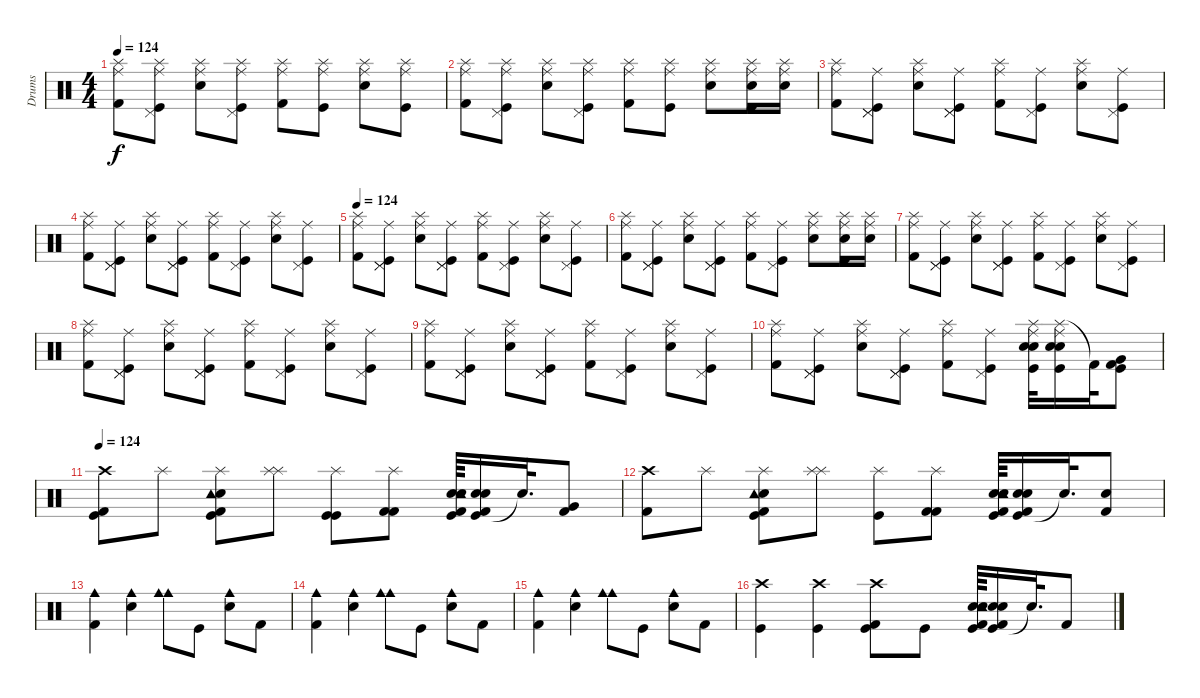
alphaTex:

\track ("Drums " "Drums ") {instrument percussion}
\staff {score}
\articulation defaults
\ts (4 4)
\tempo 124
\clef neutral
\ks c
("Splash (hit)" "Ride (middle)" "Kick (hit) 2").8{dy f} ("Splash (hit)" "Ride (middle)" "Kick (hit)" "Pedal Hi-Hat (hit)").8 ("Splash (hit)" "Ride (middle)" "Electric Snare (hit)").8 ("Splash (hit)" "Ride (middle)" "Kick (hit)" "Pedal Hi-Hat (hit)").8 ("Splash (hit)" "Ride (middle)" "Kick (hit) 2").8 ("Splash (hit)" "Ride (middle)" "Kick (hit)").8 ("Splash (hit)" "Ride (middle)" "Electric Snare (hit)").8 ("Splash (hit)" "Ride (middle)" "Kick (hit)").8 |
("Splash (hit)" "Ride (middle)" "Kick (hit) 2").8 ("Splash (hit)" "Ride (middle)" "Kick (hit)" "Pedal Hi-Hat (hit)").8 ("Splash (hit)" "Ride (middle)" "Electric Snare (hit)").8 ("Splash (hit)" "Ride (middle)" "Kick (hit)" "Pedal Hi-Hat (hit)").8 ("Splash (hit)" "Ride (middle)" "Kick (hit) 2").8 ("Splash (hit)" "Ride (middle)" "Kick (hit)").8 ("Splash (hit)" "Ride (middle)" "Electric Snare (hit)").8 ("Splash (hit)" "Ride (middle)" "Kick (hit)" "Electric Snare (hit)").16 ("Splash (hit)" "Ride (middle)" "Electric Snare (hit)").16 |
("Splash (hit)" "Ride (middle)" "Kick (hit) 2").8 ("Pedal Hi-Hat (hit)" "Ride (middle)" "Kick (hit)" "Pedal Hi-Hat (hit)").8 ("Splash (hit)" "Ride (middle)" "Electric Snare (hit)").8 ("Pedal Hi-Hat (hit)" "Ride (middle)" "Kick (hit)" "Pedal Hi-Hat (hit)").8 ("Splash (hit)" "Ride (middle)" "Kick (hit) 2").8 ("Pedal Hi-Hat (hit)" "Ride (middle)" "Kick (hit)").8 ("Splash (hit)" "Ride (middle)" "Electric Snare (hit)").8 ("Pedal Hi-Hat (hit)" "Ride (middle)" "Kick (hit)").8 |
("Splash (hit)" "Ride (middle)" "Kick (hit) 2").8 ("Pedal Hi-Hat (hit)" "Ride (middle)" "Kick (hit)" "Pedal Hi-Hat (hit)").8 ("Splash (hit)" "Ride (middle)" "Electric Snare (hit)").8 ("Pedal Hi-Hat (hit)" "Ride (middle)" "Kick (hit)" "Pedal Hi-Hat (hit)").8 ("Splash (hit)" "Ride (middle)" "Kick (hit) 2").8 ("Pedal Hi-Hat (hit)" "Ride (middle)" "Kick (hit)").8 ("Splash (hit)" "Ride (middle)" "Electric Snare (hit)").8 ("Pedal Hi-Hat (hit)" "Ride (middle)" "Kick (hit)").8 |
\tempo 124
("Splash (hit)" "Ride (middle)" "Kick (hit) 2").8 ("Pedal Hi-Hat (hit)" "Ride (middle)" "Kick (hit)" "Pedal Hi-Hat (hit)").8 ("Splash (hit)" "Ride (middle)" "Electric Snare (hit)").8 ("Pedal Hi-Hat (hit)" "Ride (middle)" "Kick (hit)" "Pedal Hi-Hat (hit)").8 ("Splash (hit)" "Ride (middle)" "Kick (hit) 2").8 ("Pedal Hi-Hat (hit)" "Ride (middle)" "Kick (hit)").8 ("Splash (hit)" "Ride (middle)" "Electric Snare (hit)").8 ("Pedal Hi-Hat (hit)" "Ride (middle)" "Kick (hit)").8 |
("Splash (hit)" "Ride (middle)" "Kick (hit) 2").8 ("Pedal Hi-Hat (hit)" "Ride (middle)" "Kick (hit)" "Pedal Hi-Hat (hit)").8 ("Splash (hit)" "Ride (middle)" "Electric Snare (hit)").8 ("Pedal Hi-Hat (hit)" "Ride (middle)" "Kick (hit)" "Pedal Hi-Hat (hit)").8 ("Splash (hit)" "Ride (middle)" "Kick (hit) 2").8 ("Pedal Hi-Hat (hit)" "Ride (middle)" "Kick (hit)").8 ("Splash (hit)" "Ride (middle)" "Electric Snare (hit)").8 ("Splash (hit)" "Ride (middle)" "Kick (hit)" "Electric Snare (hit)").16 ("Splash (hit)" "Ride (middle)" "Electric Snare (hit)").16 |
("Splash (hit)" "Ride (middle)" "Kick (hit) 2").8 ("Pedal Hi-Hat (hit)" "Ride (middle)" "Kick (hit)" "Pedal Hi-Hat (hit)").8 ("Splash (hit)" "Ride (middle)" "Electric Snare (hit)").8 ("Pedal Hi-Hat (hit)" "Ride (middle)" "Kick (hit)" "Pedal Hi-Hat (hit)").8 ("Splash (hit)" "Ride (middle)" "Kick (hit) 2").8 ("Pedal Hi-Hat (hit)" "Ride (middle)" "Kick (hit)").8 ("Splash (hit)" "Ride (middle)" "Electric Snare (hit)").8 ("Pedal Hi-Hat (hit)" "Ride (middle)" "Kick (hit)").8 |
("Splash (hit)" "Ride (middle)" "Kick (hit) 2").8 ("Pedal Hi-Hat (hit)" "Ride (middle)" "Kick (hit)" "Pedal Hi-Hat (hit)").8 ("Splash (hit)" "Ride (middle)" "Electric Snare (hit)").8 ("Pedal Hi-Hat (hit)" "Ride (middle)" "Kick (hit)" "Pedal Hi-Hat (hit)").8 ("Splash (hit)" "Ride (middle)" "Kick (hit) 2").8 ("Pedal Hi-Hat (hit)" "Ride (middle)" "Kick (hit)").8 ("Splash (hit)" "Ride (middle)" "Electric Snare (hit)").8 ("Pedal Hi-Hat (hit)" "Ride (middle)" "Kick (hit)").8 |
("Splash (hit)" "Ride (middle)" "Kick (hit) 2").8 ("Pedal Hi-Hat (hit)" "Ride (middle)" "Kick (hit)" "Pedal Hi-Hat (hit)").8 ("Splash (hit)" "Ride (middle)" "Electric Snare (hit)").8 ("Pedal Hi-Hat (hit)" "Ride (middle)" "Kick (hit)" "Pedal Hi-Hat (hit)").8 ("Splash (hit)" "Ride (middle)" "Kick (hit) 2").8 ("Pedal Hi-Hat (hit)" "Ride (middle)" "Kick (hit)").8 ("Splash (hit)" "Ride (middle)" "Electric Snare (hit)").8 ("Pedal Hi-Hat (hit)" "Ride (middle)" "Kick (hit)").8 |
("Splash (hit)" "Ride (middle)" "Kick (hit) 2").8 ("Pedal Hi-Hat (hit)" "Ride (middle)" "Kick (hit)" "Pedal Hi-Hat (hit)").8 ("Splash (hit)" "Ride (middle)" "Electric Snare (hit)").8 ("Pedal Hi-Hat (hit)" "Ride (middle)" "Kick (hit)" "Pedal Hi-Hat (hit)").8 ("Splash (hit)" "Ride (middle)" "Kick (hit) 2").8 ("Pedal Hi-Hat (hit)" "Ride (middle)" "Kick (hit)").8 ("Splash (hit)" "Ride (middle)" "Kick (hit)" "Electric Snare (hit)" "Snare (hit) 2").32 ("Splash (hit)" "Ride (middle)" "Kick (hit)" "Electric Snare (hit)" "Snare (hit) 2").16 "Kick (hit) 2"{t}.32 ("Very Low Tom (hit)" "Kick (hit)" "Kick (hit) 2").8 |
\tempo 124
("Kick (hit) 2" "Kick (hit)" "Crash high (hit)").8 "Splash (hit)".8 ("Kick (hit)" "Kick (hit) 2" "Electric Snare (hit)" "Tambourine (hit)" "Splash (hit)").8 ("Splash (hit)" "Splash (hit)").8 ("Splash (hit)" "Kick (hit)" "Kick (hit)").8 ("Splash (hit)" "Kick (hit) 2" "Kick (hit) 2").8 ("Kick (hit)" "Kick (hit) 2" "Electric Snare (hit)" "Tambourine (hit)" "Snare (hit) 2").64 ("Kick (hit)" "Kick (hit) 2" "Electric Snare (hit)" "Snare (hit) 2").16 "Snare (hit)"{t}.32{d} ("Very Low Tom (hit)" "Kick (hit) 2").8 |
("Kick (hit) 2" "Crash high (hit)").8 "Splash (hit)".8 ("Kick (hit)" "Kick (hit) 2" "Electric Snare (hit)" "Tambourine (hit)" "Splash (hit)").8 ("Splash (hit)" "Splash (hit)").8 ("Splash (hit)" "Kick (hit)").8 ("Splash (hit)" "Kick (hit) 2" "Kick (hit) 2").8 ("Kick (hit)" "Kick (hit) 2" "Electric Snare (hit)" "Tambourine (hit)" "Snare (hit) 2").64 ("Kick (hit)" "Kick (hit) 2" "Electric Snare (hit)" "Snare (hit) 2").16 "Snare (hit)"{t}.32{d} ("Electric Snare (hit)" "Kick (hit) 2").8 |
("Kick (hit) 2" "Cowbell medium (hit)").4 ("Cowbell medium (hit)" "Electric Snare (hit)").4 ("Cowbell medium (hit)" "Cowbell medium (hit)").8 "Kick (hit)".8 ("Cowbell medium (hit)" "Electric Snare (hit)").8 "Kick (hit) 2".8 |
("Kick (hit) 2" "Cowbell medium (hit)").4 ("Cowbell medium (hit)" "Electric Snare (hit)").4 ("Cowbell medium (hit)" "Cowbell medium (hit)").8 "Kick (hit)".8 ("Cowbell medium (hit)" "Electric Snare (hit)").8 "Kick (hit) 2".8 |
("Kick (hit) 2" "Cowbell medium (hit)").4 ("Cowbell medium (hit)" "Electric Snare (hit)").4 ("Cowbell medium (hit)" "Cowbell medium (hit)").8 "Kick (hit)".8 ("Cowbell medium (hit)" "Electric Snare (hit)").8 "Kick (hit) 2".8 |
("Kick (hit)" "Crash high (hit)").4 ("Crash high (hit)" "Kick (hit)").4 ("Kick (hit)" "Kick (hit) 2" "Crash high (hit)").8 "Kick (hit)".8 ("Kick (hit)" "Kick (hit) 2" "Electric Snare (hit)" "Tambourine (hit)" "Snare (hit) 2").64 ("Kick (hit)" "Kick (hit) 2" "Electric Snare (hit)" "Snare (hit) 2").16 "Snare (hit)"{t}.32{d} "Kick (hit) 2".8
